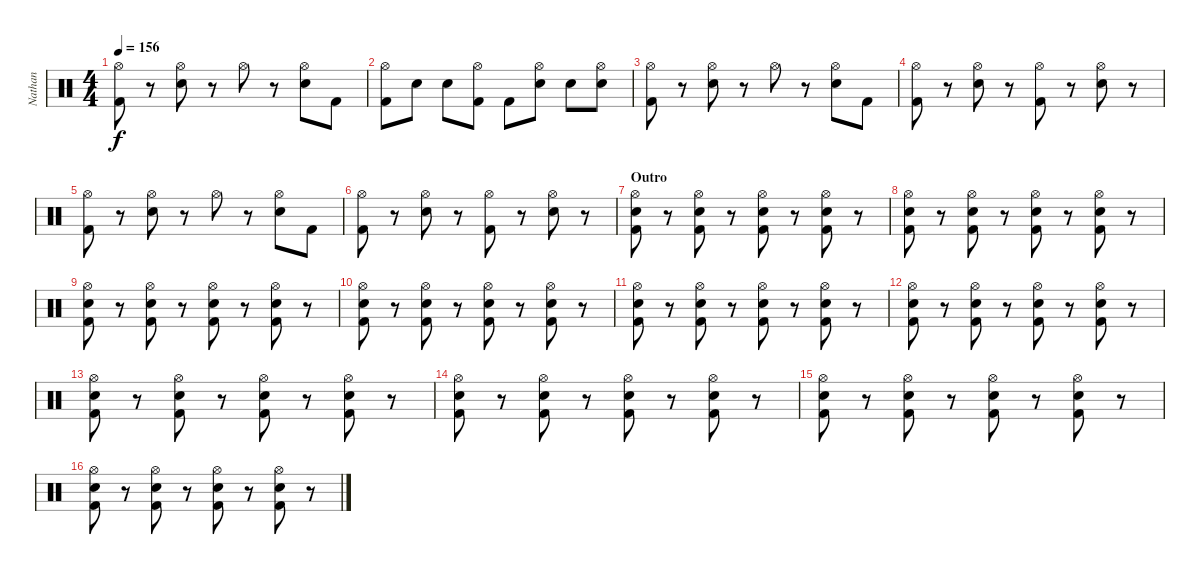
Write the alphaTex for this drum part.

\track ("Nathan" "Nathan") {instrument percussion}
\staff {score}
\articulation defaults
\ts (4 4)
\tempo 156
\clef neutral
\ks c
("Hi-Hat (open)" "Kick (hit) 2").8{dy f} r.8 ("Hi-Hat (open)" "Electric Snare (hit)").8 r.8 "Hi-Hat (open)".8 r.8 ("Hi-Hat (open)" "Electric Snare (hit)").8 "Kick (hit) 2".8 |
("Hi-Hat (open)" "Kick (hit) 2").8 "Electric Snare (hit)".8 "Electric Snare (hit)".8 ("Hi-Hat (open)" "Kick (hit) 2").8 "Kick (hit) 2".8 ("Hi-Hat (open)" "Electric Snare (hit)").8 "Electric Snare (hit)".8 ("Hi-Hat (open)" "Electric Snare (hit)").8 |
("Hi-Hat (open)" "Kick (hit) 2").8 r.8 ("Hi-Hat (open)" "Electric Snare (hit)").8 r.8 "Hi-Hat (open)".8 r.8 ("Hi-Hat (open)" "Electric Snare (hit)").8 "Kick (hit) 2".8 |
("Hi-Hat (open)" "Kick (hit) 2").8 r.8 ("Hi-Hat (open)" "Electric Snare (hit)").8 r.8 ("Hi-Hat (open)" "Kick (hit) 2").8 r.8 ("Hi-Hat (open)" "Electric Snare (hit)").8 r.8 |
("Hi-Hat (open)" "Kick (hit) 2").8 r.8 ("Hi-Hat (open)" "Electric Snare (hit)").8 r.8 "Hi-Hat (open)".8 r.8 ("Hi-Hat (open)" "Electric Snare (hit)").8 "Kick (hit) 2".8 |
("Hi-Hat (open)" "Kick (hit) 2").8 r.8 ("Hi-Hat (open)" "Electric Snare (hit)").8 r.8 ("Hi-Hat (open)" "Kick (hit) 2").8 r.8 ("Hi-Hat (open)" "Electric Snare (hit)").8 r.8 |
\section ("" "Outro")
("Hi-Hat (open)" "Electric Snare (hit)" "Kick (hit) 2").8 r.8 ("Hi-Hat (open)" "Electric Snare (hit)" "Kick (hit) 2").8 r.8 ("Hi-Hat (open)" "Electric Snare (hit)" "Kick (hit) 2").8 r.8 ("Hi-Hat (open)" "Electric Snare (hit)" "Kick (hit) 2").8 r.8 |
("Hi-Hat (open)" "Electric Snare (hit)" "Kick (hit) 2").8 r.8 ("Hi-Hat (open)" "Electric Snare (hit)" "Kick (hit) 2").8 r.8 ("Hi-Hat (open)" "Electric Snare (hit)" "Kick (hit) 2").8 r.8 ("Hi-Hat (open)" "Electric Snare (hit)" "Kick (hit) 2").8 r.8 |
("Hi-Hat (open)" "Electric Snare (hit)" "Kick (hit) 2").8 r.8 ("Hi-Hat (open)" "Electric Snare (hit)" "Kick (hit) 2").8 r.8 ("Hi-Hat (open)" "Electric Snare (hit)" "Kick (hit) 2").8 r.8 ("Hi-Hat (open)" "Electric Snare (hit)" "Kick (hit) 2").8 r.8 |
("Hi-Hat (open)" "Electric Snare (hit)" "Kick (hit) 2").8 r.8 ("Hi-Hat (open)" "Electric Snare (hit)" "Kick (hit) 2").8 r.8 ("Hi-Hat (open)" "Electric Snare (hit)" "Kick (hit) 2").8 r.8 ("Hi-Hat (open)" "Electric Snare (hit)" "Kick (hit) 2").8 r.8 |
("Hi-Hat (open)" "Electric Snare (hit)" "Kick (hit) 2").8 r.8 ("Hi-Hat (open)" "Electric Snare (hit)" "Kick (hit) 2").8 r.8 ("Hi-Hat (open)" "Electric Snare (hit)" "Kick (hit) 2").8 r.8 ("Hi-Hat (open)" "Electric Snare (hit)" "Kick (hit) 2").8 r.8 |
("Hi-Hat (open)" "Electric Snare (hit)" "Kick (hit) 2").8 r.8 ("Hi-Hat (open)" "Electric Snare (hit)" "Kick (hit) 2").8 r.8 ("Hi-Hat (open)" "Electric Snare (hit)" "Kick (hit) 2").8 r.8 ("Hi-Hat (open)" "Electric Snare (hit)" "Kick (hit) 2").8 r.8 |
("Hi-Hat (open)" "Electric Snare (hit)" "Kick (hit) 2").8 r.8 ("Hi-Hat (open)" "Electric Snare (hit)" "Kick (hit) 2").8 r.8 ("Hi-Hat (open)" "Electric Snare (hit)" "Kick (hit) 2").8 r.8 ("Hi-Hat (open)" "Electric Snare (hit)" "Kick (hit) 2").8 r.8 |
("Hi-Hat (open)" "Electric Snare (hit)" "Kick (hit) 2").8 r.8 ("Hi-Hat (open)" "Electric Snare (hit)" "Kick (hit) 2").8 r.8 ("Hi-Hat (open)" "Electric Snare (hit)" "Kick (hit) 2").8 r.8 ("Hi-Hat (open)" "Electric Snare (hit)" "Kick (hit) 2").8 r.8 |
("Hi-Hat (open)" "Electric Snare (hit)" "Kick (hit) 2").8 r.8 ("Hi-Hat (open)" "Electric Snare (hit)" "Kick (hit) 2").8 r.8 ("Hi-Hat (open)" "Electric Snare (hit)" "Kick (hit) 2").8 r.8 ("Hi-Hat (open)" "Electric Snare (hit)" "Kick (hit) 2").8 r.8 |
("Hi-Hat (open)" "Electric Snare (hit)" "Kick (hit) 2").8 r.8 ("Hi-Hat (open)" "Electric Snare (hit)" "Kick (hit) 2").8 r.8 ("Hi-Hat (open)" "Electric Snare (hit)" "Kick (hit) 2").8 r.8 ("Hi-Hat (open)" "Electric Snare (hit)" "Kick (hit) 2").8 r.8
